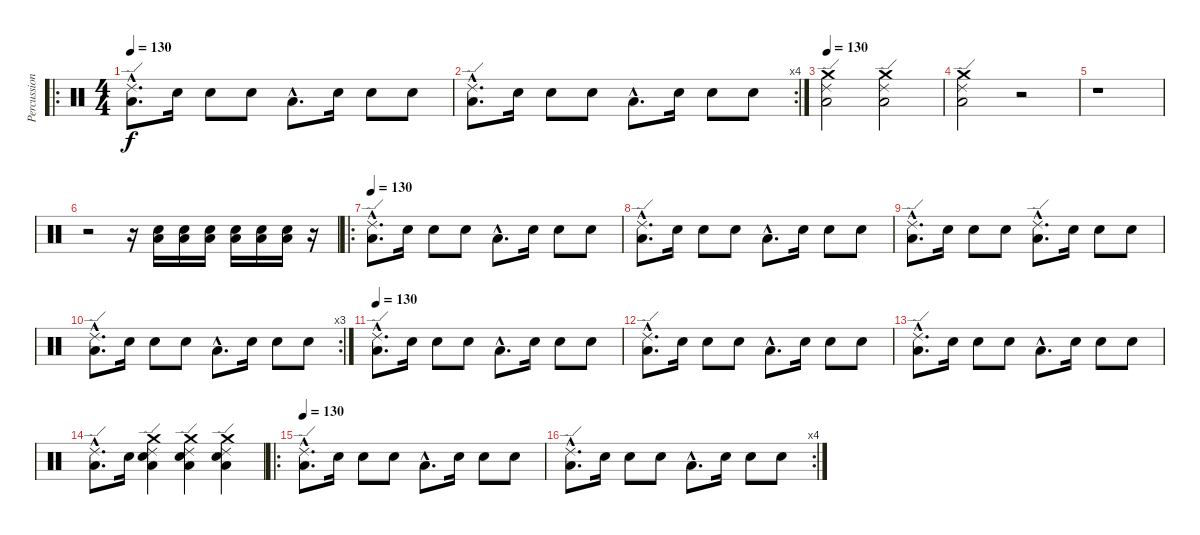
\track ("Percussions" "Percussion") {instrument percussion}
\staff {score}
\articulation defaults
\ro
\ts (4 4)
\tempo 130
\clef neutral
\ks c
("Low Floor Tom (hit)"{hac} "Ride (edge) 2"{hac}).8{d dy f} "Snare (hit) 2".16 "Snare (hit) 2".8 "Snare (hit) 2".8 "Low Floor Tom (hit)"{hac}.8{d} "Snare (hit) 2".16 "Snare (hit) 2".8 "Snare (hit) 2".8 |
\rc 4
("Low Floor Tom (hit)"{hac} "Ride (edge) 2"{hac}).8{d} "Snare (hit) 2".16 "Snare (hit) 2".8 "Snare (hit) 2".8 "Low Floor Tom (hit)"{hac}.8{d} "Snare (hit) 2".16 "Snare (hit) 2".8 "Snare (hit) 2".8 |
\tempo 130
("Low Floor Tom (hit)" "Crash medium (hit)" "Ride (edge) 2").2 ("Low Floor Tom (hit)" "Crash medium (hit)" "Ride (edge) 2").2 |
("Low Floor Tom (hit)" "Crash medium (hit)" "Ride (edge) 2").2 r.2 |
r.1 |
r.2 r.16 ("Low Floor Tom (hit)" "Snare (hit) 2").16 ("Low Floor Tom (hit)" "Snare (hit) 2").16 ("Low Floor Tom (hit)" "Snare (hit) 2").16 ("Low Floor Tom (hit)" "Snare (hit) 2").16 ("Low Floor Tom (hit)" "Snare (hit) 2").16 ("Low Floor Tom (hit)" "Snare (hit) 2").16 r.16 |
\ro
\tempo 130
("Low Floor Tom (hit)"{hac} "Ride (edge) 2"{hac}).8{d} "Snare (hit) 2".16 "Snare (hit) 2".8 "Snare (hit) 2".8 "Low Floor Tom (hit)"{hac}.8{d} "Snare (hit) 2".16 "Snare (hit) 2".8 "Snare (hit) 2".8 |
("Low Floor Tom (hit)"{hac} "Ride (edge) 2"{hac}).8{d} "Snare (hit) 2".16 "Snare (hit) 2".8 "Snare (hit) 2".8 "Low Floor Tom (hit)"{hac}.8{d} "Snare (hit) 2".16 "Snare (hit) 2".8 "Snare (hit) 2".8 |
("Low Floor Tom (hit)"{hac} "Ride (edge) 2"{hac}).8{d} "Snare (hit) 2".16 "Snare (hit) 2".8 "Snare (hit) 2".8 ("Low Floor Tom (hit)"{hac} "Ride (edge) 2"{hac}).8{d} "Snare (hit) 2".16 "Snare (hit) 2".8 "Snare (hit) 2".8 |
\rc 3
("Low Floor Tom (hit)"{hac} "Ride (edge) 2"{hac}).8{d} "Snare (hit) 2".16 "Snare (hit) 2".8 "Snare (hit) 2".8 "Low Floor Tom (hit)"{hac}.8{d} "Snare (hit) 2".16 "Snare (hit) 2".8 "Snare (hit) 2".8 |
\tempo 130
("Low Floor Tom (hit)"{hac} "Ride (edge) 2"{hac}).8{d} "Snare (hit) 2".16 "Snare (hit) 2".8 "Snare (hit) 2".8 "Low Floor Tom (hit)"{hac}.8{d} "Snare (hit) 2".16 "Snare (hit) 2".8 "Snare (hit) 2".8 |
("Low Floor Tom (hit)"{hac} "Ride (edge) 2"{hac}).8{d} "Snare (hit) 2".16 "Snare (hit) 2".8 "Snare (hit) 2".8 "Low Floor Tom (hit)"{hac}.8{d} "Snare (hit) 2".16 "Snare (hit) 2".8 "Snare (hit) 2".8 |
("Low Floor Tom (hit)"{hac} "Ride (edge) 2"{hac}).8{d} "Snare (hit) 2".16 "Snare (hit) 2".8 "Snare (hit) 2".8 "Low Floor Tom (hit)"{hac}.8{d} "Snare (hit) 2".16 "Snare (hit) 2".8 "Snare (hit) 2".8 |
("Low Floor Tom (hit)"{hac} "Ride (edge) 2"{hac}).8{d} "Snare (hit) 2".16 ("Low Floor Tom (hit)" "Snare (hit) 2" "Crash medium (hit)" "Ride (edge) 2").4 ("Low Floor Tom (hit)" "Snare (hit) 2" "Crash medium (hit)" "Ride (edge) 2").4 ("Low Floor Tom (hit)" "Snare (hit) 2" "Crash medium (hit)" "Ride (edge) 2").4 |
\ro
\tempo 130
("Low Floor Tom (hit)"{hac} "Ride (edge) 2"{hac}).8{d} "Snare (hit) 2".16 "Snare (hit) 2".8 "Snare (hit) 2".8 "Low Floor Tom (hit)"{hac}.8{d} "Snare (hit) 2".16 "Snare (hit) 2".8 "Snare (hit) 2".8 |
\rc 4
("Low Floor Tom (hit)"{hac} "Ride (edge) 2"{hac}).8{d} "Snare (hit) 2".16 "Snare (hit) 2".8 "Snare (hit) 2".8 "Low Floor Tom (hit)"{hac}.8{d} "Snare (hit) 2".16 "Snare (hit) 2".8 "Snare (hit) 2".8
